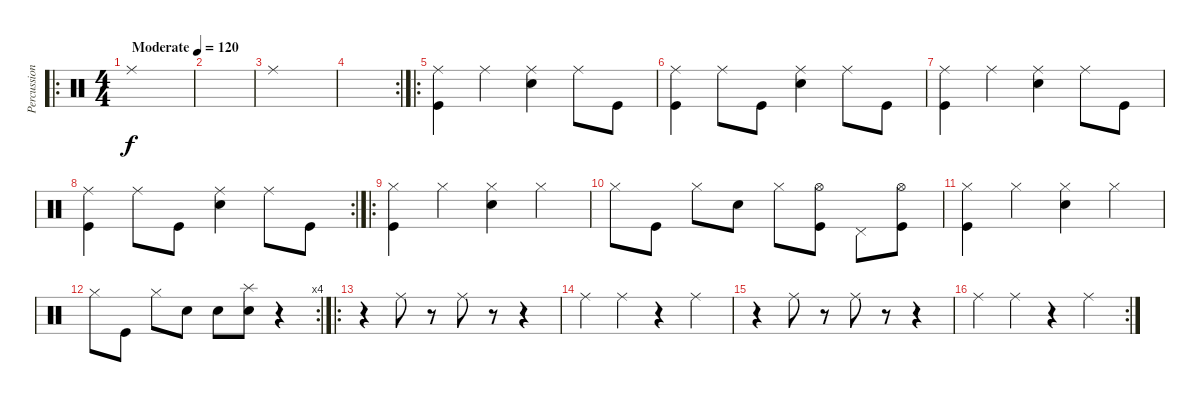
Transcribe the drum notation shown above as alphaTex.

\track ("Percussion" "Percussion") {instrument percussion}
\staff {score}
\articulation defaults
\ro
\ts (4 4)
\tempo (120 "Moderate")
\clef neutral
\ks c "Ride (middle)".1{dy f}
|
|
"Ride (middle)".1 |
\rc 2
|
\ro
("Ride (middle)" "Kick (hit)").4 "Ride (middle)".4 ("Ride (middle)" "Snare (hit) 2").4 "Ride (middle)".8 "Kick (hit)".8 |
("Ride (middle)" "Kick (hit)").4 "Ride (middle)".8 "Kick (hit)".8 ("Ride (middle)" "Snare (hit) 2").4 "Ride (middle)".8 "Kick (hit)".8 |
("Ride (middle)" "Kick (hit)").4 "Ride (middle)".4 ("Ride (middle)" "Snare (hit) 2").4 "Ride (middle)".8 "Kick (hit)".8 |
\rc 2
("Ride (middle)" "Kick (hit)").4 "Ride (middle)".8 "Kick (hit)".8 ("Ride (middle)" "Snare (hit) 2").4 "Ride (middle)".8 "Kick (hit)".8 |
\ro
("Hi-Hat (closed)" "Kick (hit)").4 "Hi-Hat (closed)".4 ("Hi-Hat (closed)" "Snare (hit) 2").4 "Hi-Hat (closed)".4 |
"Hi-Hat (closed)".8 "Kick (hit)".8 "Hi-Hat (closed)".8 "Snare (hit) 2".8 "Hi-Hat (closed)".8 ("Hi-Hat (open)" "Kick (hit)").8 "Pedal Hi-Hat (hit)".8 ("Hi-Hat (open)" "Kick (hit)").8 |
("Hi-Hat (closed)" "Kick (hit)").4 "Hi-Hat (closed)".4 ("Hi-Hat (closed)" "Snare (hit) 2").4 "Hi-Hat (closed)".4 |
\rc 4 "Hi-Hat (closed)".8 "Kick (hit)".8 "Hi-Hat (closed)".8 "Snare (hit) 2".8 "Snare (hit) 2".8
("Splash (hit)" "Snare (hit) 2").8 r.4 |
\ro
r.4 "Ride (middle)".8 r.8 "Ride (middle)".8 r.8 r.4 |
"Ride (middle)".4 "Ride (middle)".4 r.4 "Ride (middle)".4 |
r.4 "Ride (middle)".8 r.8 "Ride (middle)".8 r.8 r.4 |
\rc 2 "Ride (middle)".4 "Ride (middle)".4
r.4 "Ride (middle)".4
